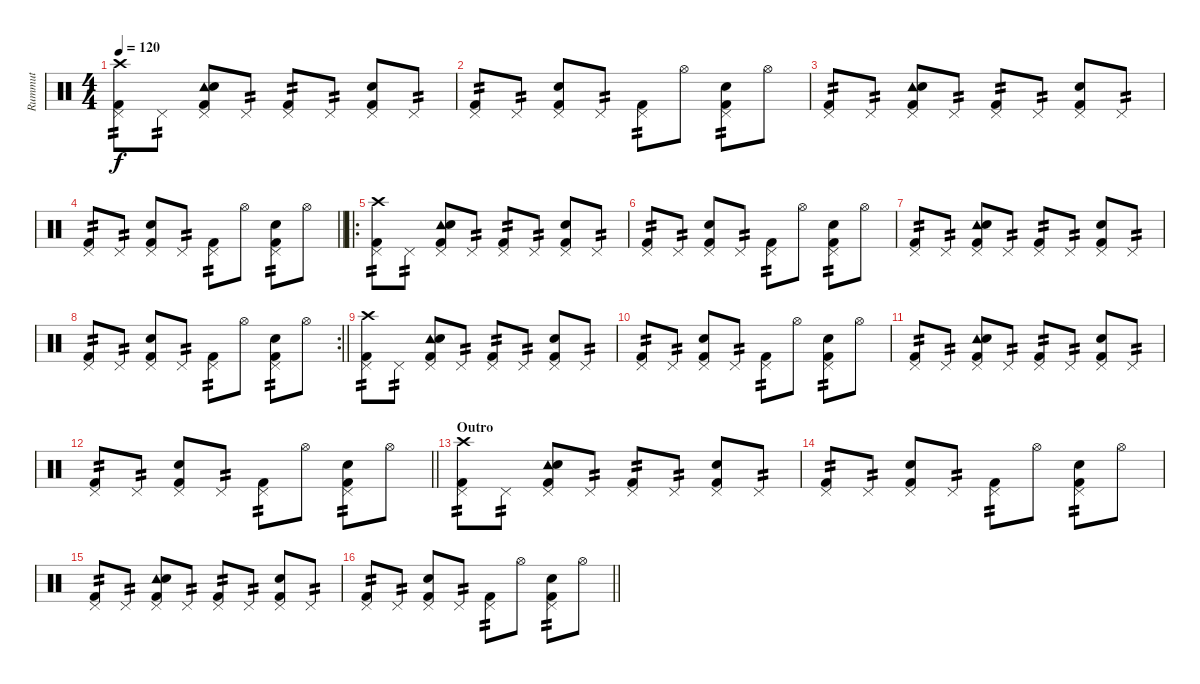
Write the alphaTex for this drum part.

\track ("Rummut" "Rummut") {instrument percussion}
\staff {score}
\articulation defaults
\ts (4 4)
\tempo 120
\clef neutral
\ks c
("Crash high (hit)" "Pedal Hi-Hat (hit)" "Kick (hit) 2").8{tp 2 dy f} "Pedal Hi-Hat (hit)".8{tp 2} ("Tambourine (hit)" "Pedal Hi-Hat (hit)" "Snare (hit) 2" "Kick (hit) 2").8 "Pedal Hi-Hat (hit)".8{tp 2} ("Pedal Hi-Hat (hit)" "Kick (hit) 2").8{tp 2} "Pedal Hi-Hat (hit)".8{tp 2} ("Pedal Hi-Hat (hit)" "Snare (hit) 2" "Kick (hit) 2").8 "Pedal Hi-Hat (hit)".8{tp 2} |
("Pedal Hi-Hat (hit)" "Kick (hit) 2").8{tp 2} "Pedal Hi-Hat (hit)".8{tp 2} ("Pedal Hi-Hat (hit)" "Snare (hit) 2" "Kick (hit) 2").8 "Pedal Hi-Hat (hit)".8{tp 2} ("Pedal Hi-Hat (hit)" "Kick (hit) 2").8{tp 2} "Hi-Hat (open)".8 ("Pedal Hi-Hat (hit)" "Snare (hit) 2" "Kick (hit) 2").8{tp 2} "Hi-Hat (open)".8 |
("Pedal Hi-Hat (hit)" "Kick (hit) 2").8{tp 2} "Pedal Hi-Hat (hit)".8{tp 2} ("Tambourine (hit)" "Pedal Hi-Hat (hit)" "Snare (hit) 2" "Kick (hit) 2").8 "Pedal Hi-Hat (hit)".8{tp 2} ("Pedal Hi-Hat (hit)" "Kick (hit) 2").8{tp 2} "Pedal Hi-Hat (hit)".8{tp 2} ("Pedal Hi-Hat (hit)" "Snare (hit) 2" "Kick (hit) 2").8 "Pedal Hi-Hat (hit)".8{tp 2} |
\barLineRight lightlight
("Pedal Hi-Hat (hit)" "Kick (hit) 2").8{tp 2} "Pedal Hi-Hat (hit)".8{tp 2} ("Pedal Hi-Hat (hit)" "Snare (hit) 2" "Kick (hit) 2").8 "Pedal Hi-Hat (hit)".8{tp 2} ("Pedal Hi-Hat (hit)" "Kick (hit) 2").8{tp 2} "Hi-Hat (open)".8 ("Pedal Hi-Hat (hit)" "Snare (hit) 2" "Kick (hit) 2").8{tp 2} "Hi-Hat (open)".8 |
\ro
("Crash high (hit)" "Pedal Hi-Hat (hit)" "Kick (hit) 2").8{tp 2} "Pedal Hi-Hat (hit)".8{tp 2} ("Tambourine (hit)" "Pedal Hi-Hat (hit)" "Snare (hit) 2" "Kick (hit) 2").8 "Pedal Hi-Hat (hit)".8{tp 2} ("Pedal Hi-Hat (hit)" "Kick (hit) 2").8{tp 2} "Pedal Hi-Hat (hit)".8{tp 2} ("Pedal Hi-Hat (hit)" "Snare (hit) 2" "Kick (hit) 2").8 "Pedal Hi-Hat (hit)".8{tp 2} |
("Pedal Hi-Hat (hit)" "Kick (hit) 2").8{tp 2} "Pedal Hi-Hat (hit)".8{tp 2} ("Pedal Hi-Hat (hit)" "Snare (hit) 2" "Kick (hit) 2").8 "Pedal Hi-Hat (hit)".8{tp 2} ("Pedal Hi-Hat (hit)" "Kick (hit) 2").8{tp 2} "Hi-Hat (open)".8 ("Pedal Hi-Hat (hit)" "Snare (hit) 2" "Kick (hit) 2").8{tp 2} "Hi-Hat (open)".8 |
("Pedal Hi-Hat (hit)" "Kick (hit) 2").8{tp 2} "Pedal Hi-Hat (hit)".8{tp 2} ("Tambourine (hit)" "Pedal Hi-Hat (hit)" "Snare (hit) 2" "Kick (hit) 2").8 "Pedal Hi-Hat (hit)".8{tp 2} ("Pedal Hi-Hat (hit)" "Kick (hit) 2").8{tp 2} "Pedal Hi-Hat (hit)".8{tp 2} ("Pedal Hi-Hat (hit)" "Snare (hit) 2" "Kick (hit) 2").8 "Pedal Hi-Hat (hit)".8{tp 2} |
\rc 2
\barLineRight lightlight
("Pedal Hi-Hat (hit)" "Kick (hit) 2").8{tp 2} "Pedal Hi-Hat (hit)".8{tp 2} ("Pedal Hi-Hat (hit)" "Snare (hit) 2" "Kick (hit) 2").8 "Pedal Hi-Hat (hit)".8{tp 2} ("Pedal Hi-Hat (hit)" "Kick (hit) 2").8{tp 2} "Hi-Hat (open)".8 ("Pedal Hi-Hat (hit)" "Snare (hit) 2" "Kick (hit) 2").8{tp 2} "Hi-Hat (open)".8 |
("Crash high (hit)" "Pedal Hi-Hat (hit)" "Kick (hit) 2").8{tp 2} "Pedal Hi-Hat (hit)".8{tp 2} ("Tambourine (hit)" "Pedal Hi-Hat (hit)" "Snare (hit) 2" "Kick (hit) 2").8 "Pedal Hi-Hat (hit)".8{tp 2} ("Pedal Hi-Hat (hit)" "Kick (hit) 2").8{tp 2} "Pedal Hi-Hat (hit)".8{tp 2} ("Pedal Hi-Hat (hit)" "Snare (hit) 2" "Kick (hit) 2").8 "Pedal Hi-Hat (hit)".8{tp 2} |
("Pedal Hi-Hat (hit)" "Kick (hit) 2").8{tp 2} "Pedal Hi-Hat (hit)".8{tp 2} ("Pedal Hi-Hat (hit)" "Snare (hit) 2" "Kick (hit) 2").8 "Pedal Hi-Hat (hit)".8{tp 2} ("Pedal Hi-Hat (hit)" "Kick (hit) 2").8{tp 2} "Hi-Hat (open)".8 ("Pedal Hi-Hat (hit)" "Snare (hit) 2" "Kick (hit) 2").8{tp 2} "Hi-Hat (open)".8 |
("Pedal Hi-Hat (hit)" "Kick (hit) 2").8{tp 2} "Pedal Hi-Hat (hit)".8{tp 2} ("Tambourine (hit)" "Pedal Hi-Hat (hit)" "Snare (hit) 2" "Kick (hit) 2").8 "Pedal Hi-Hat (hit)".8{tp 2} ("Pedal Hi-Hat (hit)" "Kick (hit) 2").8{tp 2} "Pedal Hi-Hat (hit)".8{tp 2} ("Pedal Hi-Hat (hit)" "Snare (hit) 2" "Kick (hit) 2").8 "Pedal Hi-Hat (hit)".8{tp 2} |
\barLineRight lightlight
("Pedal Hi-Hat (hit)" "Kick (hit) 2").8{tp 2} "Pedal Hi-Hat (hit)".8{tp 2} ("Pedal Hi-Hat (hit)" "Snare (hit) 2" "Kick (hit) 2").8 "Pedal Hi-Hat (hit)".8{tp 2} ("Pedal Hi-Hat (hit)" "Kick (hit) 2").8{tp 2} "Hi-Hat (open)".8 ("Pedal Hi-Hat (hit)" "Snare (hit) 2" "Kick (hit) 2").8{tp 2} "Hi-Hat (open)".8 |
\section ("" "Outro")
("Crash high (hit)" "Pedal Hi-Hat (hit)" "Kick (hit) 2").8{tp 2} "Pedal Hi-Hat (hit)".8{tp 2} ("Tambourine (hit)" "Pedal Hi-Hat (hit)" "Snare (hit) 2" "Kick (hit) 2").8 "Pedal Hi-Hat (hit)".8{tp 2} ("Pedal Hi-Hat (hit)" "Kick (hit) 2").8{tp 2} "Pedal Hi-Hat (hit)".8{tp 2} ("Pedal Hi-Hat (hit)" "Snare (hit) 2" "Kick (hit) 2").8 "Pedal Hi-Hat (hit)".8{tp 2} |
("Pedal Hi-Hat (hit)" "Kick (hit) 2").8{tp 2} "Pedal Hi-Hat (hit)".8{tp 2} ("Pedal Hi-Hat (hit)" "Snare (hit) 2" "Kick (hit) 2").8 "Pedal Hi-Hat (hit)".8{tp 2} ("Pedal Hi-Hat (hit)" "Kick (hit) 2").8{tp 2} "Hi-Hat (open)".8 ("Pedal Hi-Hat (hit)" "Snare (hit) 2" "Kick (hit) 2").8{tp 2} "Hi-Hat (open)".8 |
("Pedal Hi-Hat (hit)" "Kick (hit) 2").8{tp 2} "Pedal Hi-Hat (hit)".8{tp 2} ("Tambourine (hit)" "Pedal Hi-Hat (hit)" "Snare (hit) 2" "Kick (hit) 2").8 "Pedal Hi-Hat (hit)".8{tp 2} ("Pedal Hi-Hat (hit)" "Kick (hit) 2").8{tp 2} "Pedal Hi-Hat (hit)".8{tp 2} ("Pedal Hi-Hat (hit)" "Snare (hit) 2" "Kick (hit) 2").8 "Pedal Hi-Hat (hit)".8{tp 2} |
\barLineRight lightlight
("Pedal Hi-Hat (hit)" "Kick (hit) 2").8{tp 2} "Pedal Hi-Hat (hit)".8{tp 2} ("Pedal Hi-Hat (hit)" "Snare (hit) 2" "Kick (hit) 2").8 "Pedal Hi-Hat (hit)".8{tp 2} ("Pedal Hi-Hat (hit)" "Kick (hit) 2").8{tp 2} "Hi-Hat (open)".8 ("Pedal Hi-Hat (hit)" "Snare (hit) 2" "Kick (hit) 2").8{tp 2} "Hi-Hat (open)".8
